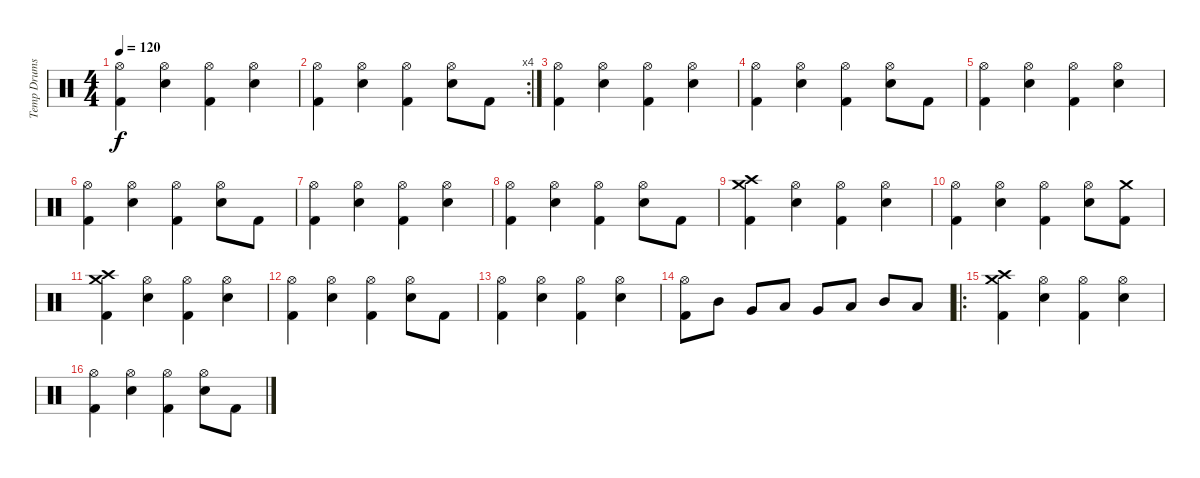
\track ("Temp Drums (i dont know them!)" "Temp Drums") {instrument percussion}
\staff {score}
\articulation defaults
\ts (4 4)
\tempo 120
\clef neutral
\ks c
("Hi-Hat (open)" "Kick (hit) 2").4{dy f} ("Hi-Hat (open)" "Snare (hit) 2").4 ("Hi-Hat (open)" "Kick (hit) 2").4 ("Hi-Hat (open)" "Snare (hit) 2").4 |
\rc 4
("Hi-Hat (open)" "Kick (hit) 2").4 ("Hi-Hat (open)" "Snare (hit) 2").4 ("Hi-Hat (open)" "Kick (hit) 2").4 ("Hi-Hat (open)" "Snare (hit) 2").8 "Kick (hit) 2".8 |
("Hi-Hat (open)" "Kick (hit) 2").4 ("Hi-Hat (open)" "Snare (hit) 2").4 ("Hi-Hat (open)" "Kick (hit) 2").4 ("Hi-Hat (open)" "Snare (hit) 2").4 |
("Hi-Hat (open)" "Kick (hit) 2").4 ("Hi-Hat (open)" "Snare (hit) 2").4 ("Hi-Hat (open)" "Kick (hit) 2").4 ("Hi-Hat (open)" "Snare (hit) 2").8 "Kick (hit) 2".8 |
("Hi-Hat (open)" "Kick (hit) 2").4 ("Hi-Hat (open)" "Snare (hit) 2").4 ("Hi-Hat (open)" "Kick (hit) 2").4 ("Hi-Hat (open)" "Snare (hit) 2").4 |
("Hi-Hat (open)" "Kick (hit) 2").4 ("Hi-Hat (open)" "Snare (hit) 2").4 ("Hi-Hat (open)" "Kick (hit) 2").4 ("Hi-Hat (open)" "Snare (hit) 2").8 "Kick (hit) 2".8 |
("Hi-Hat (open)" "Kick (hit) 2").4 ("Hi-Hat (open)" "Snare (hit) 2").4 ("Hi-Hat (open)" "Kick (hit) 2").4 ("Hi-Hat (open)" "Snare (hit) 2").4 |
("Hi-Hat (open)" "Kick (hit) 2").4 ("Hi-Hat (open)" "Snare (hit) 2").4 ("Hi-Hat (open)" "Kick (hit) 2").4 ("Hi-Hat (open)" "Snare (hit) 2").8 "Kick (hit) 2".8 |
("Crash medium (hit)" "Crash high (hit)" "Kick (hit) 2").4 ("Hi-Hat (open)" "Snare (hit) 2").4 ("Hi-Hat (open)" "Kick (hit) 2").4 ("Hi-Hat (open)" "Snare (hit) 2").4 |
("Hi-Hat (open)" "Kick (hit) 2").4 ("Hi-Hat (open)" "Snare (hit) 2").4 ("Hi-Hat (open)" "Kick (hit) 2").4 ("Hi-Hat (open)" "Snare (hit) 2").8 ("Crash medium (hit)" "Kick (hit) 2").8 |
("Crash high (hit)" "Crash medium (hit)" "Kick (hit) 2").4 ("Hi-Hat (open)" "Snare (hit) 2").4 ("Hi-Hat (open)" "Kick (hit) 2").4 ("Hi-Hat (open)" "Snare (hit) 2").4 |
("Hi-Hat (open)" "Kick (hit) 2").4 ("Hi-Hat (open)" "Snare (hit) 2").4 ("Hi-Hat (open)" "Kick (hit) 2").4 ("Hi-Hat (open)" "Snare (hit) 2").8 "Kick (hit) 2".8 |
("Hi-Hat (open)" "Kick (hit) 2").4 ("Hi-Hat (open)" "Snare (hit) 2").4 ("Hi-Hat (open)" "Kick (hit) 2").4 ("Hi-Hat (open)" "Snare (hit) 2").4 |
("Hi-Hat (open)" "Kick (hit) 2").8 "Mid Tom (hit)".8 "Very Low Tom (hit)".8 "Low Tom (hit)".8 "Very Low Tom (hit)".8 "Low Tom (hit)".8 "Mid Tom (hit)".8 "Low Tom (hit)".8 |
\ro
("Crash medium (hit)" "Crash high (hit)" "Kick (hit) 2").4 ("Hi-Hat (open)" "Snare (hit) 2").4 ("Hi-Hat (open)" "Kick (hit) 2").4 ("Hi-Hat (open)" "Snare (hit) 2").4 |
("Hi-Hat (open)" "Kick (hit) 2").4 ("Hi-Hat (open)" "Snare (hit) 2").4 ("Hi-Hat (open)" "Kick (hit) 2").4 ("Hi-Hat (open)" "Snare (hit) 2").8 "Kick (hit) 2".8
